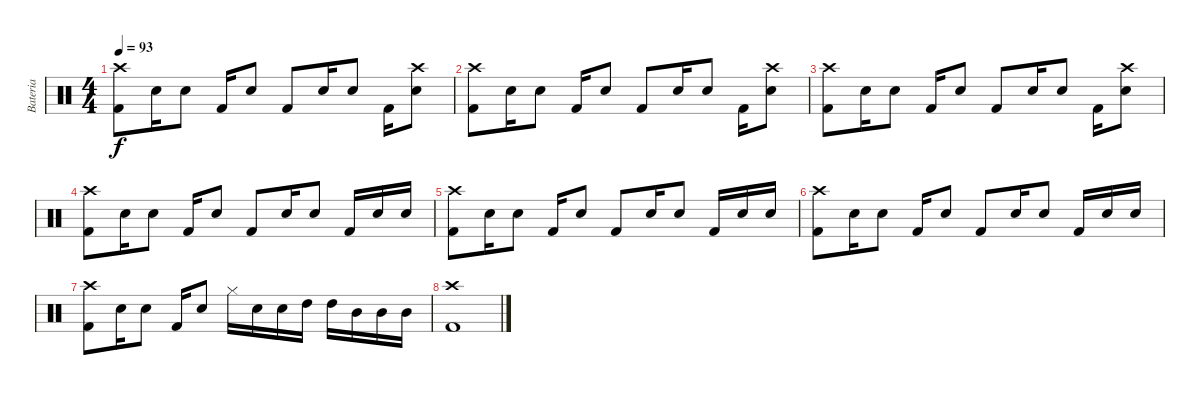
\track ("Bateria" "Bateria") {instrument percussion}
\staff {score}
\articulation defaults
\ts (4 4)
\tempo 93
\clef neutral
\ks c
("Crash high (hit)" "Kick (hit) 2").8{dy f} "Snare (hit) 2".16 "Snare (hit) 2".8 "Kick (hit) 2".16 "Snare (hit) 2".8 "Kick (hit) 2".8 "Snare (hit) 2".16 "Snare (hit) 2".8 "Kick (hit) 2".16 ("Crash high (hit)" "Snare (hit) 2").8 |
("Crash high (hit)" "Kick (hit) 2").8 "Snare (hit) 2".16 "Snare (hit) 2".8 "Kick (hit) 2".16 "Snare (hit) 2".8 "Kick (hit) 2".8 "Snare (hit) 2".16 "Snare (hit) 2".8 "Kick (hit) 2".16 ("Crash high (hit)" "Snare (hit) 2").8 |
("Crash high (hit)" "Kick (hit) 2").8 "Snare (hit) 2".16 "Snare (hit) 2".8 "Kick (hit) 2".16 "Snare (hit) 2".8 "Kick (hit) 2".8 "Snare (hit) 2".16 "Snare (hit) 2".8 "Kick (hit) 2".16 ("Crash high (hit)" "Snare (hit) 2").8 |
("Crash high (hit)" "Kick (hit) 2").8 "Snare (hit) 2".16 "Snare (hit) 2".8 "Kick (hit) 2".16 "Snare (hit) 2".8 "Kick (hit) 2".8 "Snare (hit) 2".16 "Snare (hit) 2".8 "Kick (hit) 2".16 "Snare (hit) 2".16 "Snare (hit) 2".16 |
("Crash high (hit)" "Kick (hit) 2").8 "Snare (hit) 2".16 "Snare (hit) 2".8 "Kick (hit) 2".16 "Snare (hit) 2".8 "Kick (hit) 2".8 "Snare (hit) 2".16 "Snare (hit) 2".8 "Kick (hit) 2".16 "Snare (hit) 2".16 "Snare (hit) 2".16 |
("Crash high (hit)" "Kick (hit) 2").8 "Snare (hit) 2".16 "Snare (hit) 2".8 "Kick (hit) 2".16 "Snare (hit) 2".8 "Kick (hit) 2".8 "Snare (hit) 2".16 "Snare (hit) 2".8 "Kick (hit) 2".16 "Snare (hit) 2".16 "Snare (hit) 2".16 |
("Crash high (hit)" "Kick (hit) 2").8 "Snare (hit) 2".16 "Snare (hit) 2".8 "Kick (hit) 2".16 "Snare (hit) 2".8 "Hi-Hat (closed)".16 "Snare (hit) 2".16 "Snare (hit) 2".16 "High Tom (hit)".16 "High Tom (hit)".16 "Mid Tom (hit)".16 "Mid Tom (hit)".16 "Mid Tom (hit)".16 |
("Crash high (hit)" "Kick (hit) 2").1
